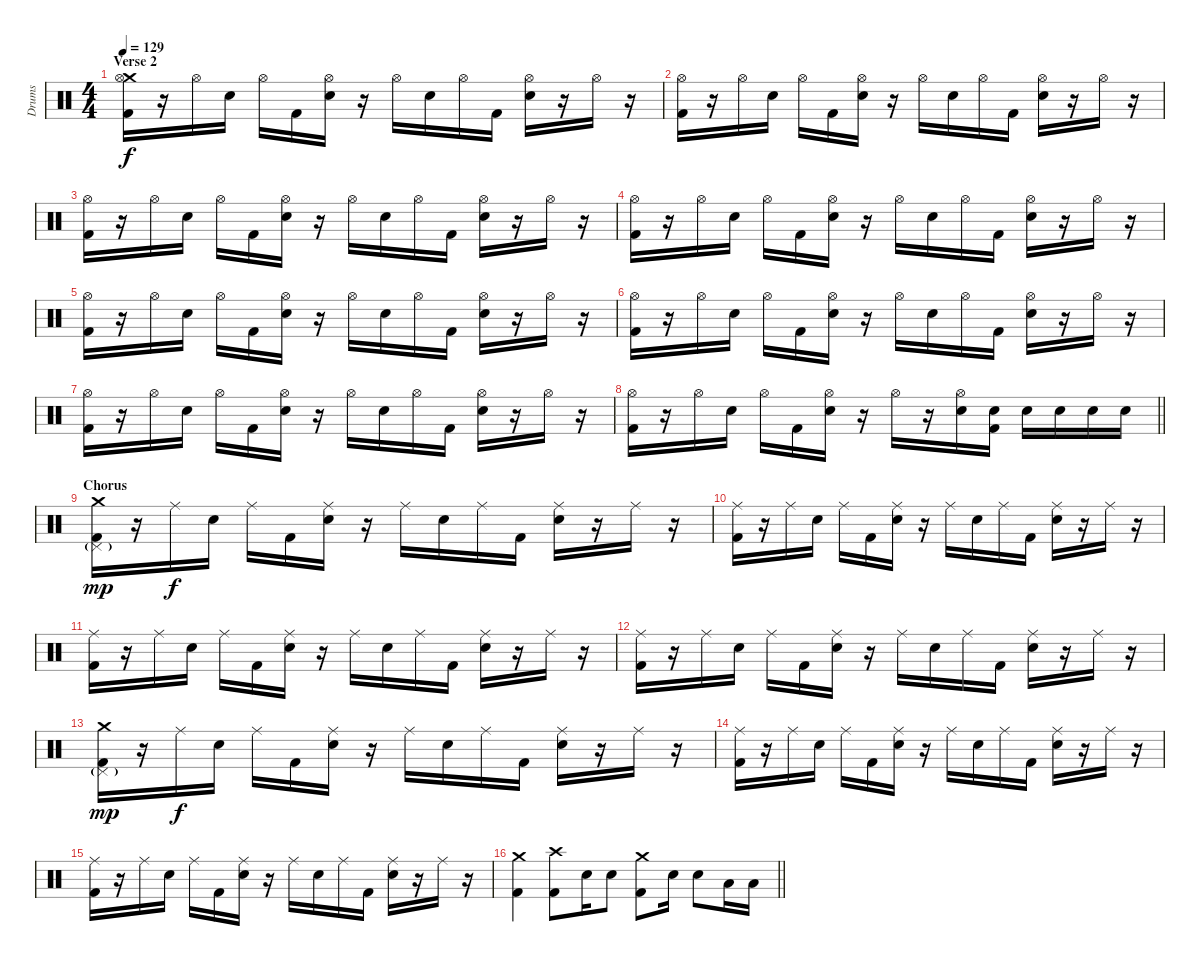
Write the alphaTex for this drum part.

\track ("Drums" "Drums") {instrument percussion}
\staff {score}
\articulation defaults
\ts (4 4)
\section ("" "Verse 2")
\tempo 129
\clef neutral
\ks c
("Crash medium (hit)" "Hi-Hat (open)" "Kick (hit) 2").16{dy f} r.16 "Hi-Hat (open)".16 "Electric Snare (hit)".16 "Hi-Hat (open)".16 "Kick (hit) 2".16 ("Hi-Hat (open)" "Electric Snare (hit)").16 r.16 "Hi-Hat (open)".16 "Electric Snare (hit)".16 "Hi-Hat (open)".16 "Kick (hit) 2".16 ("Hi-Hat (open)" "Electric Snare (hit)").16 r.16 "Hi-Hat (open)".16 r.16 |
("Hi-Hat (open)" "Kick (hit) 2").16 r.16 "Hi-Hat (open)".16 "Electric Snare (hit)".16 "Hi-Hat (open)".16 "Kick (hit) 2".16 ("Hi-Hat (open)" "Electric Snare (hit)").16 r.16 "Hi-Hat (open)".16 "Electric Snare (hit)".16 "Hi-Hat (open)".16 "Kick (hit) 2".16 ("Hi-Hat (open)" "Electric Snare (hit)").16 r.16 "Hi-Hat (open)".16 r.16 |
("Hi-Hat (open)" "Kick (hit) 2").16 r.16 "Hi-Hat (open)".16 "Electric Snare (hit)".16 "Hi-Hat (open)".16 "Kick (hit) 2".16 ("Hi-Hat (open)" "Electric Snare (hit)").16 r.16 "Hi-Hat (open)".16 "Electric Snare (hit)".16 "Hi-Hat (open)".16 "Kick (hit) 2".16 ("Hi-Hat (open)" "Electric Snare (hit)").16 r.16 "Hi-Hat (open)".16 r.16 |
("Hi-Hat (open)" "Kick (hit) 2").16 r.16 "Hi-Hat (open)".16 "Electric Snare (hit)".16 "Hi-Hat (open)".16 "Kick (hit) 2".16 ("Hi-Hat (open)" "Electric Snare (hit)").16 r.16 "Hi-Hat (open)".16 "Electric Snare (hit)".16 "Hi-Hat (open)".16 "Kick (hit) 2".16 ("Hi-Hat (open)" "Electric Snare (hit)").16 r.16 "Hi-Hat (open)".16 r.16 |
("Hi-Hat (open)" "Kick (hit) 2").16 r.16 "Hi-Hat (open)".16 "Electric Snare (hit)".16 "Hi-Hat (open)".16 "Kick (hit) 2".16 ("Hi-Hat (open)" "Electric Snare (hit)").16 r.16 "Hi-Hat (open)".16 "Electric Snare (hit)".16 "Hi-Hat (open)".16 "Kick (hit) 2".16 ("Hi-Hat (open)" "Electric Snare (hit)").16 r.16 "Hi-Hat (open)".16 r.16 |
("Hi-Hat (open)" "Kick (hit) 2").16 r.16 "Hi-Hat (open)".16 "Electric Snare (hit)".16 "Hi-Hat (open)".16 "Kick (hit) 2".16 ("Hi-Hat (open)" "Electric Snare (hit)").16 r.16 "Hi-Hat (open)".16 "Electric Snare (hit)".16 "Hi-Hat (open)".16 "Kick (hit) 2".16 ("Hi-Hat (open)" "Electric Snare (hit)").16 r.16 "Hi-Hat (open)".16 r.16 |
("Hi-Hat (open)" "Kick (hit) 2").16 r.16 "Hi-Hat (open)".16 "Electric Snare (hit)".16 "Hi-Hat (open)".16 "Kick (hit) 2".16 ("Hi-Hat (open)" "Electric Snare (hit)").16 r.16 "Hi-Hat (open)".16 "Electric Snare (hit)".16 "Hi-Hat (open)".16 "Kick (hit) 2".16 ("Hi-Hat (open)" "Electric Snare (hit)").16 r.16 "Hi-Hat (open)".16 r.16 |
\barLineRight lightlight
("Hi-Hat (open)" "Kick (hit) 2").16 r.16 "Hi-Hat (open)".16 "Electric Snare (hit)".16 "Hi-Hat (open)".16 "Kick (hit) 2".16 ("Hi-Hat (open)" "Electric Snare (hit)").16 r.16 "Hi-Hat (open)".16 r.16 ("Hi-Hat (open)" "Electric Snare (hit)").16 ("Electric Snare (hit)" "Kick (hit) 2").16 "Electric Snare (hit)".16 "Electric Snare (hit)".16 "Electric Snare (hit)".16 "Electric Snare (hit)".16 |
\section ("" "Chorus")
("Crash medium (hit)" "Pedal Hi-Hat (hit)"{g} "Kick (hit) 2").16{dy mp} r.16 "Ride (middle)".16{dy f} "Electric Snare (hit)".16 "Ride (middle)".16 "Kick (hit) 2".16 ("Ride (middle)" "Electric Snare (hit)").16 r.16 "Ride (middle)".16 "Electric Snare (hit)".16 "Ride (middle)".16 "Kick (hit) 2".16 ("Ride (middle)" "Electric Snare (hit)").16 r.16 "Ride (middle)".16 r.16 |
("Ride (middle)" "Kick (hit) 2").16 r.16 "Ride (middle)".16 "Electric Snare (hit)".16 "Ride (middle)".16 "Kick (hit) 2".16 ("Ride (middle)" "Electric Snare (hit)").16 r.16 "Ride (middle)".16 "Electric Snare (hit)".16 "Ride (middle)".16 "Kick (hit) 2".16 ("Ride (middle)" "Electric Snare (hit)").16 r.16 "Ride (middle)".16 r.16 |
("Ride (middle)" "Kick (hit) 2").16 r.16 "Ride (middle)".16 "Electric Snare (hit)".16 "Ride (middle)".16 "Kick (hit) 2".16 ("Ride (middle)" "Electric Snare (hit)").16 r.16 "Ride (middle)".16 "Electric Snare (hit)".16 "Ride (middle)".16 "Kick (hit) 2".16 ("Ride (middle)" "Electric Snare (hit)").16 r.16 "Ride (middle)".16 r.16 |
("Ride (middle)" "Kick (hit) 2").16 r.16 "Ride (middle)".16 "Electric Snare (hit)".16 "Ride (middle)".16 "Kick (hit) 2".16 ("Ride (middle)" "Electric Snare (hit)").16 r.16 "Ride (middle)".16 "Electric Snare (hit)".16 "Ride (middle)".16 "Kick (hit) 2".16 ("Ride (middle)" "Electric Snare (hit)").16 r.16 "Ride (middle)".16 r.16 |
("Crash medium (hit)" "Pedal Hi-Hat (hit)"{g} "Kick (hit) 2").16{dy mp} r.16 "Ride (middle)".16{dy f} "Electric Snare (hit)".16 "Ride (middle)".16 "Kick (hit) 2".16 ("Ride (middle)" "Electric Snare (hit)").16 r.16 "Ride (middle)".16 "Electric Snare (hit)".16 "Ride (middle)".16 "Kick (hit) 2".16 ("Ride (middle)" "Electric Snare (hit)").16 r.16 "Ride (middle)".16 r.16 |
("Ride (middle)" "Kick (hit) 2").16 r.16 "Ride (middle)".16 "Electric Snare (hit)".16 "Ride (middle)".16 "Kick (hit) 2".16 ("Ride (middle)" "Electric Snare (hit)").16 r.16 "Ride (middle)".16 "Electric Snare (hit)".16 "Ride (middle)".16 "Kick (hit) 2".16 ("Ride (middle)" "Electric Snare (hit)").16 r.16 "Ride (middle)".16 r.16 |
("Ride (middle)" "Kick (hit) 2").16 r.16 "Ride (middle)".16 "Electric Snare (hit)".16 "Ride (middle)".16 "Kick (hit) 2".16 ("Ride (middle)" "Electric Snare (hit)").16 r.16 "Ride (middle)".16 "Electric Snare (hit)".16 "Ride (middle)".16 "Kick (hit) 2".16 ("Ride (middle)" "Electric Snare (hit)").16 r.16 "Ride (middle)".16 r.16 |
\barLineRight lightlight
("Crash medium (hit)" "Kick (hit) 2").4 ("Crash high (hit)" "Kick (hit) 2").8 "Electric Snare (hit)".16 "Electric Snare (hit)".8 ("Crash medium (hit)" "Kick (hit) 2").8 "Electric Snare (hit)".16 "Electric Snare (hit)".8 "Low Tom (hit)".16 "Low Tom (hit)".16
